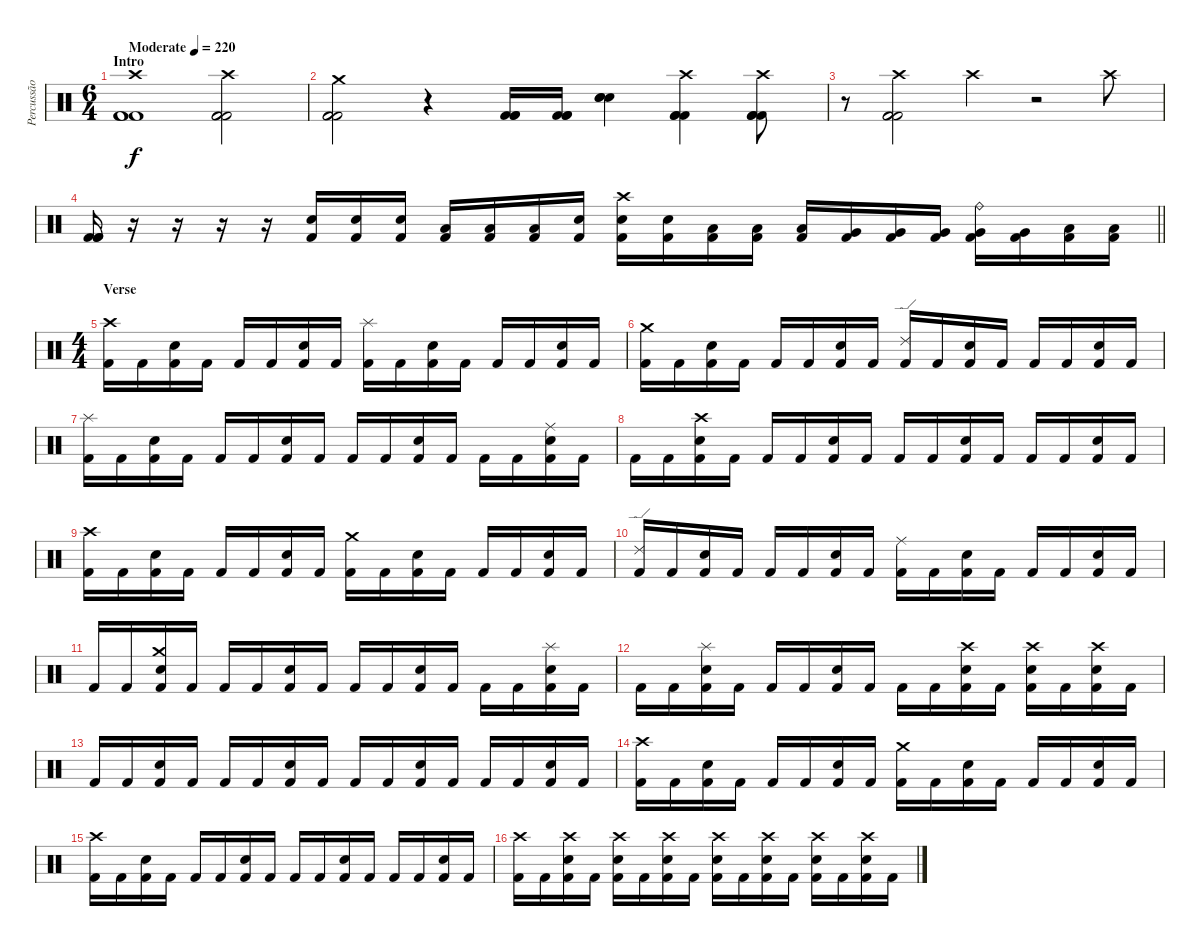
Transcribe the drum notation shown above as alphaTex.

\track ("Percussão" "Percussão") {instrument percussion}
\staff {score}
\articulation defaults
\ts (6 4)
\section ("" "Intro")
\tempo (220 "Moderate")
\clef neutral
\ks c
("Crash high (hit)" "Kick (hit) 2" "Kick (hit) 2" "Kick (hit) 2").1{dy f} ("Crash high (hit)" "Kick (hit) 2" "Kick (hit) 2" "Kick (hit) 2").2 |
("Crash medium (hit)" "Kick (hit) 2" "Kick (hit) 2" "Kick (hit) 2").2 r.4 ("Kick (hit) 2" "Kick (hit) 2" "Kick (hit) 2").16 ("Kick (hit) 2" "Kick (hit) 2" "Kick (hit) 2").16 ("Electric Snare (hit)" "Electric Snare (hit)" "Electric Snare (hit)").4 ("Crash high (hit)" "Kick (hit) 2" "Kick (hit) 2" "Kick (hit) 2").4 ("Crash high (hit)" "Kick (hit) 2" "Kick (hit) 2" "Kick (hit) 2").8 |
r.8 ("Crash high (hit)" "Kick (hit) 2" "Kick (hit) 2" "Kick (hit) 2").2 "Crash high (hit)".4 r.2 "Crash high (hit)".8 |
\barLineRight lightlight
("Kick (hit) 2" "Kick (hit) 2" "Kick (hit) 2").16 r.16 r.16 r.16 r.16 ("Electric Snare (hit)" "Kick (hit) 2").16 ("Electric Snare (hit)" "Kick (hit) 2").16 ("Electric Snare (hit)" "Kick (hit) 2").16 ("Low Tom (hit)" "Kick (hit) 2").16 ("Low Tom (hit)" "Kick (hit) 2").16 ("Low Tom (hit)" "Kick (hit) 2").16 ("Electric Snare (hit)" "Kick (hit) 2").16 ("Crash high (hit)" "Electric Snare (hit)" "Kick (hit) 2").16 ("Electric Snare (hit)" "Kick (hit) 2").16 ("Low Tom (hit)" "Kick (hit) 2").16 ("Low Tom (hit)" "Kick (hit) 2").16 ("Low Tom (hit)" "Kick (hit) 2").16 ("Very Low Tom (hit)" "Kick (hit) 2").16 ("Very Low Tom (hit)" "Kick (hit) 2").16 ("Very Low Tom (hit)" "Kick (hit) 2").16 ("Ride (bell)" "Very Low Tom (hit)" "Kick (hit) 2").16 ("Very Low Tom (hit)" "Kick (hit) 2").16 ("Low Tom (hit)" "Kick (hit) 2").16 ("Low Tom (hit)" "Kick (hit) 2").16 |
\ts (4 4)
\section ("" "Verse")
("Crash high (hit)" "Kick (hit) 2").16 "Kick (hit) 2".16 ("Electric Snare (hit)" "Kick (hit) 2").16 "Kick (hit) 2".16 "Kick (hit) 2".16 "Kick (hit) 2".16 ("Electric Snare (hit)" "Kick (hit) 2").16 "Kick (hit) 2".16 ("Splash (hit)" "Kick (hit) 2").16 "Kick (hit) 2".16 ("Electric Snare (hit)" "Kick (hit) 2").16 "Kick (hit) 2".16 "Kick (hit) 2".16 "Kick (hit) 2".16 ("Electric Snare (hit)" "Kick (hit) 2").16 "Kick (hit) 2".16 |
("Crash medium (hit)" "Kick (hit) 2").16 "Kick (hit) 2".16 ("Electric Snare (hit)" "Kick (hit) 2").16 "Kick (hit) 2".16 "Kick (hit) 2".16 "Kick (hit) 2".16 ("Electric Snare (hit)" "Kick (hit) 2").16 "Kick (hit) 2".16 ("Ride (edge) 2" "Kick (hit) 2").16 "Kick (hit) 2".16 ("Electric Snare (hit)" "Kick (hit) 2").16 "Kick (hit) 2".16 "Kick (hit) 2".16 "Kick (hit) 2".16 ("Electric Snare (hit)" "Kick (hit) 2").16 "Kick (hit) 2".16 |
("Splash (hit)" "Kick (hit) 2").16 "Kick (hit) 2".16 ("Electric Snare (hit)" "Kick (hit) 2").16 "Kick (hit) 2".16 "Kick (hit) 2".16 "Kick (hit) 2".16 ("Electric Snare (hit)" "Kick (hit) 2").16 "Kick (hit) 2".16 "Kick (hit) 2".16 "Kick (hit) 2".16 ("Electric Snare (hit)" "Kick (hit) 2").16 "Kick (hit) 2".16 "Kick (hit) 2".16 "Kick (hit) 2".16 ("Ride (middle)" "Electric Snare (hit)" "Kick (hit) 2").16 "Kick (hit) 2".16 |
"Kick (hit) 2".16 "Kick (hit) 2".16 ("Crash high (hit)" "Electric Snare (hit)" "Kick (hit) 2").16 "Kick (hit) 2".16 "Kick (hit) 2".16 "Kick (hit) 2".16 ("Electric Snare (hit)" "Kick (hit) 2").16 "Kick (hit) 2".16 "Kick (hit) 2".16 "Kick (hit) 2".16 ("Electric Snare (hit)" "Kick (hit) 2").16 "Kick (hit) 2".16 "Kick (hit) 2".16 "Kick (hit) 2".16 ("Electric Snare (hit)" "Kick (hit) 2").16 "Kick (hit) 2".16 |
("Crash high (hit)" "Kick (hit) 2").16 "Kick (hit) 2".16 ("Electric Snare (hit)" "Kick (hit) 2").16 "Kick (hit) 2".16 "Kick (hit) 2".16 "Kick (hit) 2".16 ("Electric Snare (hit)" "Kick (hit) 2").16 "Kick (hit) 2".16 ("Crash medium (hit)" "Kick (hit) 2").16 "Kick (hit) 2".16 ("Electric Snare (hit)" "Kick (hit) 2").16 "Kick (hit) 2".16 "Kick (hit) 2".16 "Kick (hit) 2".16 ("Electric Snare (hit)" "Kick (hit) 2").16 "Kick (hit) 2".16 |
("Ride (edge) 2" "Kick (hit) 2").16 "Kick (hit) 2".16 ("Electric Snare (hit)" "Kick (hit) 2").16 "Kick (hit) 2".16 "Kick (hit) 2".16 "Kick (hit) 2".16 ("Electric Snare (hit)" "Kick (hit) 2").16 "Kick (hit) 2".16 ("Ride (middle)" "Kick (hit) 2").16 "Kick (hit) 2".16 ("Electric Snare (hit)" "Kick (hit) 2").16 "Kick (hit) 2".16 "Kick (hit) 2".16 "Kick (hit) 2".16 ("Electric Snare (hit)" "Kick (hit) 2").16 "Kick (hit) 2".16 |
"Kick (hit) 2".16 "Kick (hit) 2".16 ("Crash medium (hit)" "Electric Snare (hit)" "Kick (hit) 2").16 "Kick (hit) 2".16 "Kick (hit) 2".16 "Kick (hit) 2".16 ("Electric Snare (hit)" "Kick (hit) 2").16 "Kick (hit) 2".16 "Kick (hit) 2".16 "Kick (hit) 2".16 ("Electric Snare (hit)" "Kick (hit) 2").16 "Kick (hit) 2".16 "Kick (hit) 2".16 "Kick (hit) 2".16 ("Splash (hit)" "Electric Snare (hit)" "Kick (hit) 2").16 "Kick (hit) 2".16 |
"Kick (hit) 2".16 "Kick (hit) 2".16 ("Splash (hit)" "Electric Snare (hit)" "Kick (hit) 2").16 "Kick (hit) 2".16 "Kick (hit) 2".16 "Kick (hit) 2".16 ("Electric Snare (hit)" "Kick (hit) 2").16 "Kick (hit) 2".16 "Kick (hit) 2".16 "Kick (hit) 2".16 ("Crash high (hit)" "Electric Snare (hit)" "Kick (hit) 2").16 "Kick (hit) 2".16 ("Crash high (hit)" "Electric Snare (hit)" "Kick (hit) 2").16 "Kick (hit) 2".16 ("Crash high (hit)" "Electric Snare (hit)" "Kick (hit) 2").16 "Kick (hit) 2".16 |
"Kick (hit) 2".16 "Kick (hit) 2".16 ("Electric Snare (hit)" "Kick (hit) 2").16 "Kick (hit) 2".16 "Kick (hit) 2".16 "Kick (hit) 2".16 ("Electric Snare (hit)" "Kick (hit) 2").16 "Kick (hit) 2".16 "Kick (hit) 2".16 "Kick (hit) 2".16 ("Electric Snare (hit)" "Kick (hit) 2").16 "Kick (hit) 2".16 "Kick (hit) 2".16 "Kick (hit) 2".16 ("Electric Snare (hit)" "Kick (hit) 2").16 "Kick (hit) 2".16 |
("Crash high (hit)" "Kick (hit) 2").16 "Kick (hit) 2".16 ("Electric Snare (hit)" "Kick (hit) 2").16 "Kick (hit) 2".16 "Kick (hit) 2".16 "Kick (hit) 2".16 ("Electric Snare (hit)" "Kick (hit) 2").16 "Kick (hit) 2".16 ("Crash medium (hit)" "Kick (hit) 2").16 "Kick (hit) 2".16 ("Electric Snare (hit)" "Kick (hit) 2").16 "Kick (hit) 2".16 "Kick (hit) 2".16 "Kick (hit) 2".16 ("Electric Snare (hit)" "Kick (hit) 2").16 "Kick (hit) 2".16 |
("Crash high (hit)" "Kick (hit) 2").16 "Kick (hit) 2".16 ("Electric Snare (hit)" "Kick (hit) 2").16 "Kick (hit) 2".16 "Kick (hit) 2".16 "Kick (hit) 2".16 ("Electric Snare (hit)" "Kick (hit) 2").16 "Kick (hit) 2".16 "Kick (hit) 2".16 "Kick (hit) 2".16 ("Electric Snare (hit)" "Kick (hit) 2").16 "Kick (hit) 2".16 "Kick (hit) 2".16 "Kick (hit) 2".16 ("Electric Snare (hit)" "Kick (hit) 2").16 "Kick (hit) 2".16 |
("Crash high (hit)" "Kick (hit) 2").16 "Kick (hit) 2".16 ("Crash high (hit)" "Electric Snare (hit)" "Kick (hit) 2").16 "Kick (hit) 2".16 ("Crash high (hit)" "Electric Snare (hit)" "Kick (hit) 2").16 "Kick (hit) 2".16 ("Crash high (hit)" "Electric Snare (hit)" "Kick (hit) 2").16 "Kick (hit) 2".16 ("Crash high (hit)" "Electric Snare (hit)" "Kick (hit) 2").16 "Kick (hit) 2".16 ("Crash high (hit)" "Electric Snare (hit)" "Kick (hit) 2").16 "Kick (hit) 2".16 ("Crash high (hit)" "Electric Snare (hit)" "Kick (hit) 2").16 "Kick (hit) 2".16 ("Crash high (hit)" "Electric Snare (hit)" "Kick (hit) 2").16 "Kick (hit) 2".16
